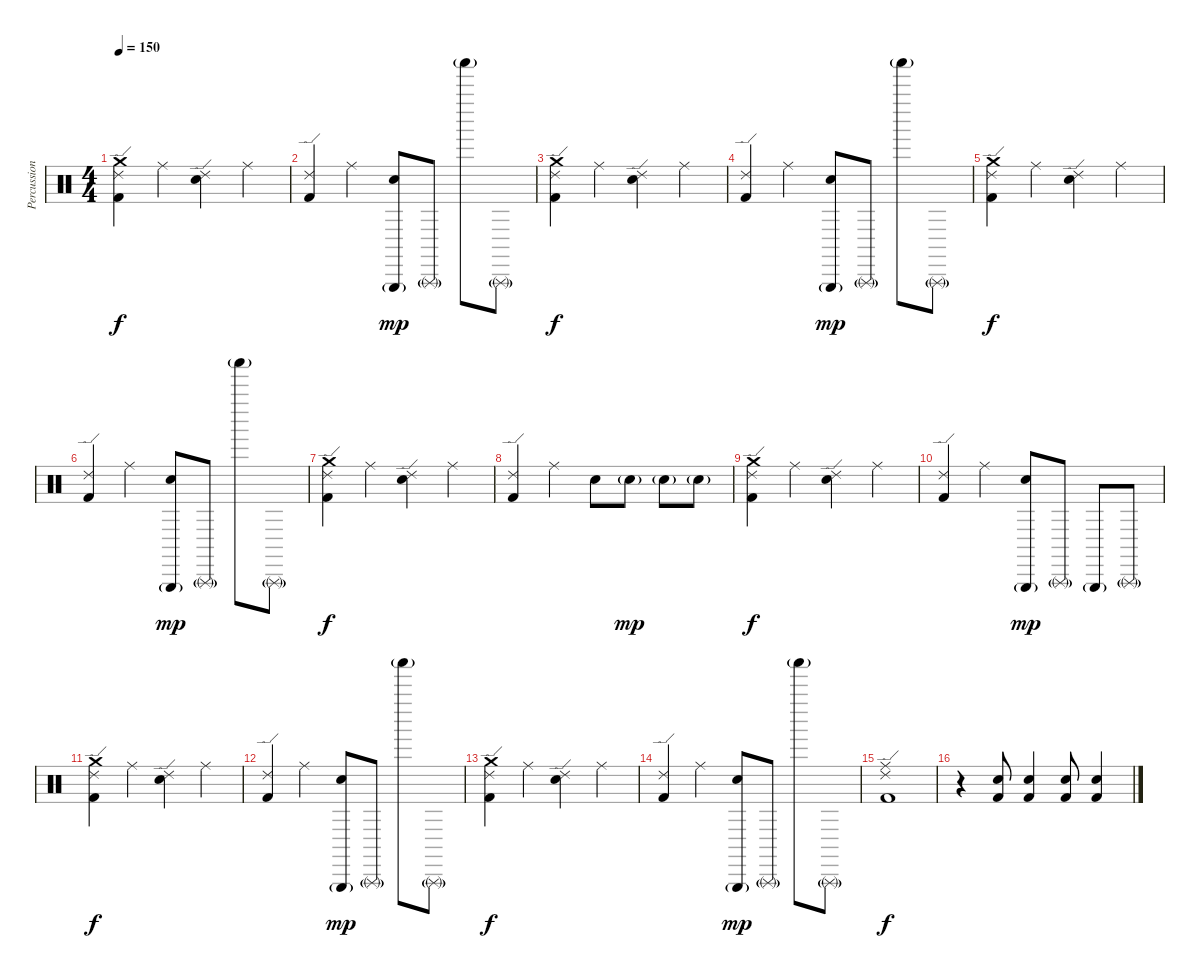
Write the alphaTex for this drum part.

\track ("Percussion" "Percussion") {instrument percussion}
\staff {score}
\articulation defaults
\ts (4 4)
\tempo 150
\clef neutral
\ks c
("Crash medium (hit)" "Ride (edge) 2" "Kick (hit) 2").4{dy f} "Ride (middle)".4 ("Ride (edge) 2" "Snare (hit) 2").4 "Ride (middle)".4 |
("Ride (edge) 2" "Kick (hit) 2").4 "Ride (middle)".4 ("Triangle (hit)"{g} "Snare (hit) 2").8{dy mp} "Triangle (rnute)"{g}.8 "Shaker (hit)"{g}.8 "Triangle (rnute)"{g}.8 |
("Crash medium (hit)" "Ride (edge) 2" "Kick (hit) 2").4{dy f} "Ride (middle)".4 ("Ride (edge) 2" "Snare (hit) 2").4 "Ride (middle)".4 |
("Ride (edge) 2" "Kick (hit) 2").4 "Ride (middle)".4 ("Triangle (hit)"{g} "Snare (hit) 2").8{dy mp} "Triangle (rnute)"{g}.8 "Shaker (hit)"{g}.8 "Triangle (rnute)"{g}.8 |
("Crash medium (hit)" "Ride (edge) 2" "Kick (hit) 2").4{dy f} "Ride (middle)".4 ("Ride (edge) 2" "Snare (hit) 2").4 "Ride (middle)".4 |
("Ride (edge) 2" "Kick (hit) 2").4 "Ride (middle)".4 ("Triangle (hit)"{g} "Snare (hit) 2").8{dy mp} "Triangle (rnute)"{g}.8 "Shaker (hit)"{g}.8 "Triangle (rnute)"{g}.8 |
("Crash medium (hit)" "Ride (edge) 2" "Kick (hit) 2").4{dy f} "Ride (middle)".4 ("Ride (edge) 2" "Snare (hit) 2").4 "Ride (middle)".4 |
("Ride (edge) 2" "Kick (hit) 2").4 "Ride (middle)".4 "Snare (hit) 2".8 "Snare (hit) 2"{g}.8{dy mp} "Snare (hit) 2"{g}.8 "Snare (hit) 2"{g}.8 |
("Crash medium (hit)" "Ride (edge) 2" "Kick (hit) 2").4{dy f} "Ride (middle)".4 ("Ride (edge) 2" "Snare (hit) 2").4 "Ride (middle)".4 |
("Ride (edge) 2" "Kick (hit) 2").4 "Ride (middle)".4 ("Triangle (hit)"{g} "Snare (hit) 2").8{dy mp} "Triangle (rnute)"{g}.8 "Triangle (hit)"{g}.8 "Triangle (rnute)"{g}.8 |
("Crash medium (hit)" "Ride (edge) 2" "Kick (hit) 2").4{dy f} "Ride (middle)".4 ("Ride (edge) 2" "Snare (hit) 2").4 "Ride (middle)".4 |
("Ride (edge) 2" "Kick (hit) 2").4 "Ride (middle)".4 ("Triangle (hit)"{g} "Snare (hit) 2").8{dy mp} "Triangle (rnute)"{g}.8 "Shaker (hit)"{g}.8 "Triangle (rnute)"{g}.8 |
("Crash medium (hit)" "Ride (edge) 2" "Kick (hit) 2").4{dy f} "Ride (middle)".4 ("Ride (edge) 2" "Snare (hit) 2").4 "Ride (middle)".4 |
("Ride (edge) 2" "Kick (hit) 2").4 "Ride (middle)".4 ("Triangle (hit)"{g} "Snare (hit) 2").8{dy mp} "Triangle (rnute)"{g}.8 "Shaker (hit)"{g}.8 "Triangle (rnute)"{g}.8 |
("Ride (edge) 2" "Ride (middle)" "Kick (hit) 2").1{dy f} |
r.4 ("Electric Snare (hit)" "Kick (hit) 2").8 ("Electric Snare (hit)" "Kick (hit) 2").4 ("Electric Snare (hit)" "Kick (hit) 2").8 ("Electric Snare (hit)" "Kick (hit) 2").4
